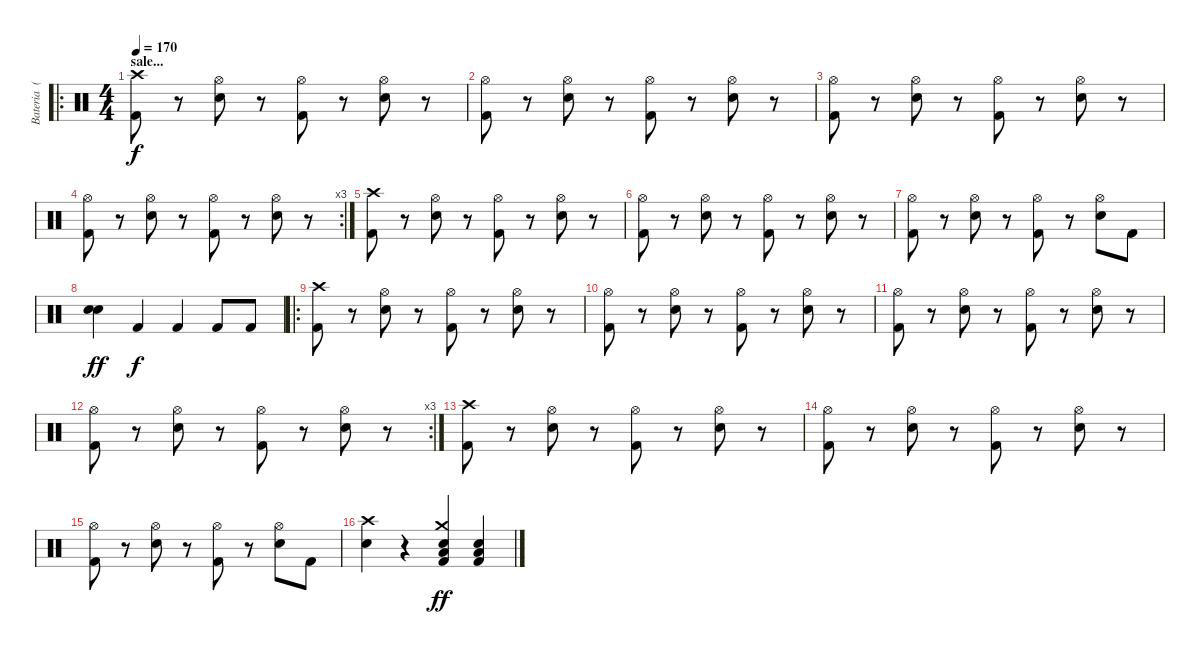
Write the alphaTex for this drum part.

\track ("Bateria  (Araujo)" "Bateria  (") {instrument percussion}
\staff {score}
\articulation defaults
\ro
\ts (4 4)
\section ("" "sale...")
\tempo 170
\clef neutral
\ks c
("Crash high (hit)" "Kick (hit) 2").8{dy f} r.8 ("Hi-Hat (open)" "Snare (hit) 2").8 r.8 ("Hi-Hat (open)" "Kick (hit) 2").8 r.8 ("Hi-Hat (open)" "Snare (hit) 2").8 r.8 |
("Hi-Hat (open)" "Kick (hit) 2").8 r.8 ("Hi-Hat (open)" "Snare (hit) 2").8 r.8 ("Hi-Hat (open)" "Kick (hit) 2").8 r.8 ("Hi-Hat (open)" "Snare (hit) 2").8 r.8 |
("Hi-Hat (open)" "Kick (hit) 2").8 r.8 ("Hi-Hat (open)" "Snare (hit) 2").8 r.8 ("Hi-Hat (open)" "Kick (hit) 2").8 r.8 ("Hi-Hat (open)" "Snare (hit) 2").8 r.8 |
\rc 3
("Hi-Hat (open)" "Kick (hit) 2").8 r.8 ("Hi-Hat (open)" "Snare (hit) 2").8 r.8 ("Hi-Hat (open)" "Kick (hit) 2").8 r.8 ("Hi-Hat (open)" "Snare (hit) 2").8 r.8 |
("Crash high (hit)" "Kick (hit) 2").8 r.8 ("Hi-Hat (open)" "Snare (hit) 2").8 r.8 ("Hi-Hat (open)" "Kick (hit) 2").8 r.8 ("Hi-Hat (open)" "Snare (hit) 2").8 r.8 |
("Hi-Hat (open)" "Kick (hit) 2").8 r.8 ("Hi-Hat (open)" "Snare (hit) 2").8 r.8 ("Hi-Hat (open)" "Kick (hit) 2").8 r.8 ("Hi-Hat (open)" "Snare (hit) 2").8 r.8 |
("Hi-Hat (open)" "Kick (hit) 2").8 r.8 ("Hi-Hat (open)" "Snare (hit) 2").8 r.8 ("Hi-Hat (open)" "Kick (hit) 2").8 r.8 ("Hi-Hat (open)" "Snare (hit) 2").8 "Kick (hit) 2".8 |
("Snare (hit) 2" "Snare (hit) 2").4{dy ff} "Kick (hit) 2".4{dy f} "Kick (hit) 2".4 "Kick (hit) 2".8 "Kick (hit) 2".8 |
\ro
("Crash high (hit)" "Kick (hit) 2").8 r.8 ("Hi-Hat (open)" "Snare (hit) 2").8 r.8 ("Hi-Hat (open)" "Kick (hit) 2").8 r.8 ("Hi-Hat (open)" "Snare (hit) 2").8 r.8 |
("Hi-Hat (open)" "Kick (hit) 2").8 r.8 ("Hi-Hat (open)" "Snare (hit) 2").8 r.8 ("Hi-Hat (open)" "Kick (hit) 2").8 r.8 ("Hi-Hat (open)" "Snare (hit) 2").8 r.8 |
("Hi-Hat (open)" "Kick (hit) 2").8 r.8 ("Hi-Hat (open)" "Snare (hit) 2").8 r.8 ("Hi-Hat (open)" "Kick (hit) 2").8 r.8 ("Hi-Hat (open)" "Snare (hit) 2").8 r.8 |
\rc 3
("Hi-Hat (open)" "Kick (hit) 2").8 r.8 ("Hi-Hat (open)" "Snare (hit) 2").8 r.8 ("Hi-Hat (open)" "Kick (hit) 2").8 r.8 ("Hi-Hat (open)" "Snare (hit) 2").8 r.8 |
("Crash high (hit)" "Kick (hit) 2").8 r.8 ("Hi-Hat (open)" "Snare (hit) 2").8 r.8 ("Hi-Hat (open)" "Kick (hit) 2").8 r.8 ("Hi-Hat (open)" "Snare (hit) 2").8 r.8 |
("Hi-Hat (open)" "Kick (hit) 2").8 r.8 ("Hi-Hat (open)" "Snare (hit) 2").8 r.8 ("Hi-Hat (open)" "Kick (hit) 2").8 r.8 ("Hi-Hat (open)" "Snare (hit) 2").8 r.8 |
("Hi-Hat (open)" "Kick (hit) 2").8 r.8 ("Hi-Hat (open)" "Snare (hit) 2").8 r.8 ("Hi-Hat (open)" "Kick (hit) 2").8 r.8 ("Hi-Hat (open)" "Snare (hit) 2").8 "Kick (hit) 2".8 |
("Crash high (hit)" "Snare (hit) 2").4 r.4 ("Crash medium (hit)" "Low Tom (hit)" "Snare (hit) 2" "Kick (hit) 2").4{dy ff} ("Snare (hit) 2" "Low Floor Tom (hit)" "Kick (hit) 2").4
